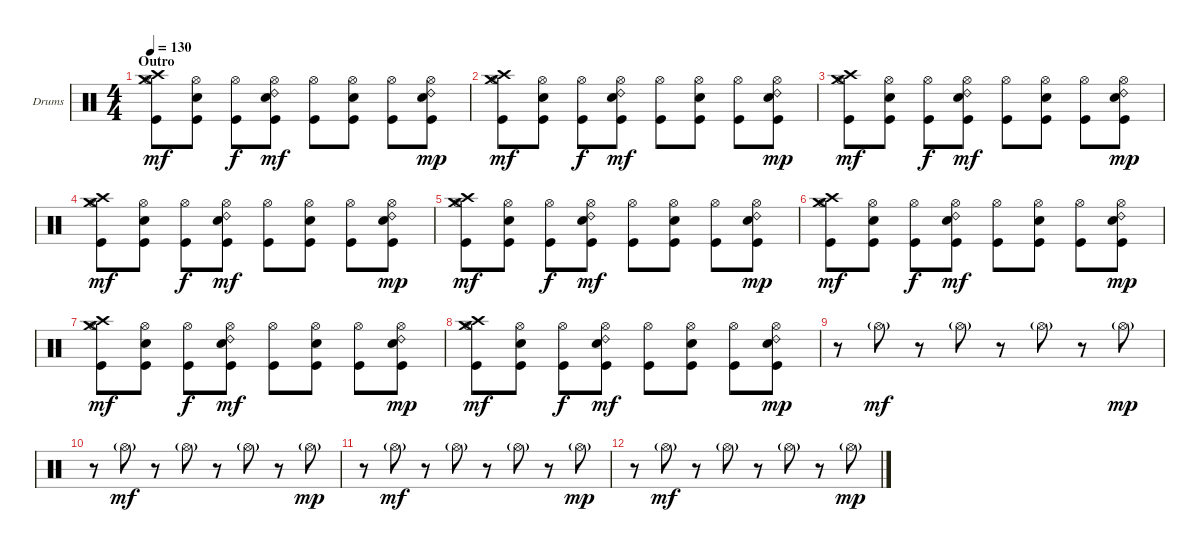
\bracketExtendMode groupsimilarinstruments
\firstSystemTrackNameOrientation horizontal
\otherSystemsTrackNameOrientation horizontal
\track ("Drumkit" "Drums") {instrument percussion}
\staff {score}
\articulation defaults
\ts (4 4)
\section ("" "Outro")
\tempo 130
\clef neutral
\ks c
("Kick (hit)" "Crash high (hit)" "Crash medium (hit)" "Hi-Hat (open)").8{dy mf} ("Hi-Hat (open)" "Snare (hit) 2" "Kick (hit)").8 ("Kick (hit)" "Hi-Hat (open)").8{dy f} ("Hi-Hat (open)" "Snare (hit) 2" "Ride (bell) 2" "Kick (hit)").8{dy mf} ("Kick (hit)" "Hi-Hat (open)").8 ("Hi-Hat (open)" "Snare (hit) 2" "Kick (hit)").8 ("Kick (hit)" "Hi-Hat (open)").8 ("Hi-Hat (open)" "Snare (hit) 2" "Ride (bell) 2" "Kick (hit)").8{dy mp} |
("Kick (hit)" "Crash high (hit)" "Crash medium (hit)" "Hi-Hat (open)").8{dy mf} ("Hi-Hat (open)" "Snare (hit) 2" "Kick (hit)").8 ("Kick (hit)" "Hi-Hat (open)").8{dy f} ("Hi-Hat (open)" "Snare (hit) 2" "Ride (bell) 2" "Kick (hit)").8{dy mf} ("Kick (hit)" "Hi-Hat (open)").8 ("Hi-Hat (open)" "Snare (hit) 2" "Kick (hit)").8 ("Kick (hit)" "Hi-Hat (open)").8 ("Hi-Hat (open)" "Snare (hit) 2" "Ride (bell) 2" "Kick (hit)").8{dy mp} |
("Kick (hit)" "Crash high (hit)" "Crash medium (hit)" "Hi-Hat (open)").8{dy mf} ("Hi-Hat (open)" "Snare (hit) 2" "Kick (hit)").8 ("Kick (hit)" "Hi-Hat (open)").8{dy f} ("Hi-Hat (open)" "Snare (hit) 2" "Ride (bell) 2" "Kick (hit)").8{dy mf} ("Kick (hit)" "Hi-Hat (open)").8 ("Hi-Hat (open)" "Snare (hit) 2" "Kick (hit)").8 ("Kick (hit)" "Hi-Hat (open)").8 ("Hi-Hat (open)" "Snare (hit) 2" "Ride (bell) 2" "Kick (hit)").8{dy mp} |
("Kick (hit)" "Crash high (hit)" "Crash medium (hit)" "Hi-Hat (open)").8{dy mf} ("Hi-Hat (open)" "Snare (hit) 2" "Kick (hit)").8 ("Kick (hit)" "Hi-Hat (open)").8{dy f} ("Hi-Hat (open)" "Snare (hit) 2" "Ride (bell) 2" "Kick (hit)").8{dy mf} ("Kick (hit)" "Hi-Hat (open)").8 ("Hi-Hat (open)" "Snare (hit) 2" "Kick (hit)").8 ("Kick (hit)" "Hi-Hat (open)").8 ("Hi-Hat (open)" "Snare (hit) 2" "Ride (bell) 2" "Kick (hit)").8{dy mp} |
("Kick (hit)" "Crash high (hit)" "Crash medium (hit)" "Hi-Hat (open)").8{dy mf} ("Hi-Hat (open)" "Snare (hit) 2" "Kick (hit)").8 ("Kick (hit)" "Hi-Hat (open)").8{dy f} ("Hi-Hat (open)" "Snare (hit) 2" "Ride (bell) 2" "Kick (hit)").8{dy mf} ("Kick (hit)" "Hi-Hat (open)").8 ("Hi-Hat (open)" "Snare (hit) 2" "Kick (hit)").8 ("Kick (hit)" "Hi-Hat (open)").8 ("Hi-Hat (open)" "Snare (hit) 2" "Ride (bell) 2" "Kick (hit)").8{dy mp} |
("Kick (hit)" "Crash high (hit)" "Crash medium (hit)" "Hi-Hat (open)").8{dy mf} ("Hi-Hat (open)" "Snare (hit) 2" "Kick (hit)").8 ("Kick (hit)" "Hi-Hat (open)").8{dy f} ("Hi-Hat (open)" "Snare (hit) 2" "Ride (bell) 2" "Kick (hit)").8{dy mf} ("Kick (hit)" "Hi-Hat (open)").8 ("Hi-Hat (open)" "Snare (hit) 2" "Kick (hit)").8 ("Kick (hit)" "Hi-Hat (open)").8 ("Hi-Hat (open)" "Snare (hit) 2" "Ride (bell) 2" "Kick (hit)").8{dy mp} |
("Kick (hit)" "Crash high (hit)" "Crash medium (hit)" "Hi-Hat (open)").8{dy mf} ("Hi-Hat (open)" "Snare (hit) 2" "Kick (hit)").8 ("Kick (hit)" "Hi-Hat (open)").8{dy f} ("Hi-Hat (open)" "Snare (hit) 2" "Ride (bell) 2" "Kick (hit)").8{dy mf} ("Kick (hit)" "Hi-Hat (open)").8 ("Hi-Hat (open)" "Snare (hit) 2" "Kick (hit)").8 ("Kick (hit)" "Hi-Hat (open)").8 ("Hi-Hat (open)" "Snare (hit) 2" "Ride (bell) 2" "Kick (hit)").8{dy mp} |
("Kick (hit)" "Crash high (hit)" "Crash medium (hit)" "Hi-Hat (open)").8{dy mf} ("Hi-Hat (open)" "Snare (hit) 2" "Kick (hit)").8 ("Kick (hit)" "Hi-Hat (open)").8{dy f} ("Hi-Hat (open)" "Snare (hit) 2" "Ride (bell) 2" "Kick (hit)").8{dy mf} ("Kick (hit)" "Hi-Hat (open)").8 ("Hi-Hat (open)" "Snare (hit) 2" "Kick (hit)").8 ("Kick (hit)" "Hi-Hat (open)").8 ("Hi-Hat (open)" "Snare (hit) 2" "Ride (bell) 2" "Kick (hit)").8{dy mp} |
r.8 "Hi-Hat (open)"{g}.8{dy mf} r.8 "Hi-Hat (open)"{g}.8 r.8 "Hi-Hat (open)"{g}.8 r.8 "Hi-Hat (open)"{g}.8{dy mp} |
r.8 "Hi-Hat (open)"{g}.8{dy mf} r.8 "Hi-Hat (open)"{g}.8 r.8 "Hi-Hat (open)"{g}.8 r.8 "Hi-Hat (open)"{g}.8{dy mp} |
r.8 "Hi-Hat (open)"{g}.8{dy mf} r.8 "Hi-Hat (open)"{g}.8 r.8 "Hi-Hat (open)"{g}.8 r.8 "Hi-Hat (open)"{g}.8{dy mp} |
r.8 "Hi-Hat (open)"{g}.8{dy mf} r.8 "Hi-Hat (open)"{g}.8 r.8 "Hi-Hat (open)"{g}.8 r.8 "Hi-Hat (open)"{g}.8{dy mp}
